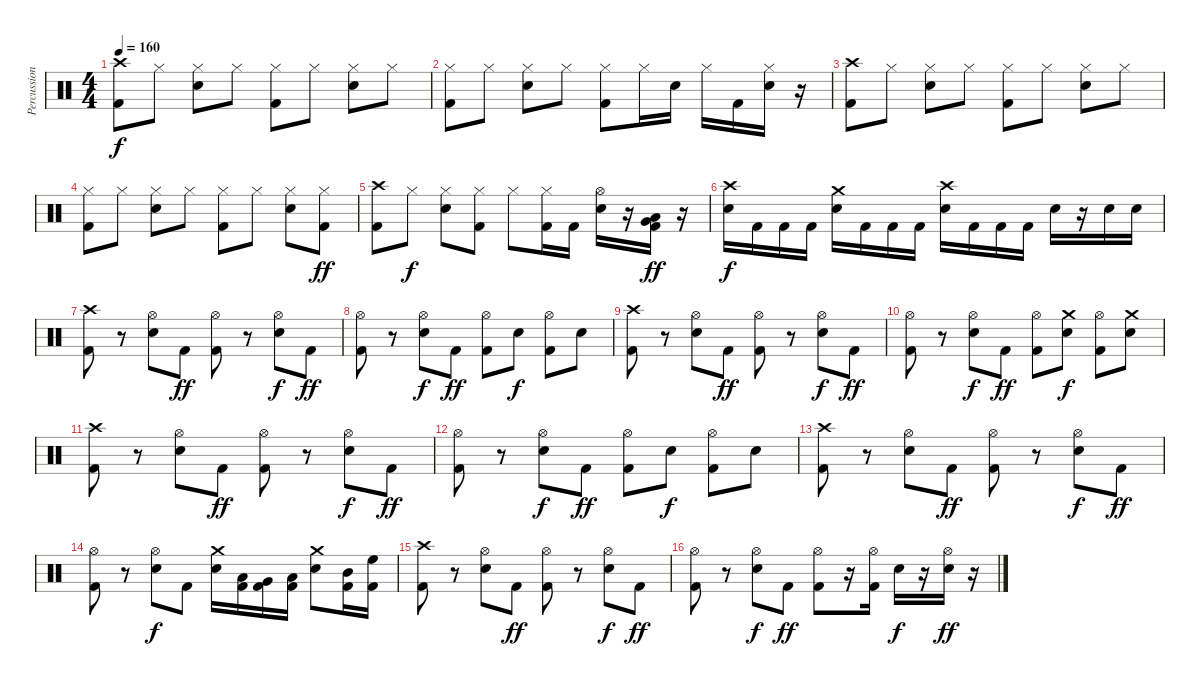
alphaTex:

\track ("Percussion" "Percussion") {instrument percussion}
\staff {score}
\articulation defaults
\ts (4 4)
\tempo 160
\clef neutral
\ks c
("Crash high (hit)" "Kick (hit) 2").8{dy f} "Hi-Hat (closed)".8 ("Hi-Hat (closed)" "Snare (hit) 2").8 "Hi-Hat (closed)".8 ("Hi-Hat (closed)" "Kick (hit) 2").8 "Hi-Hat (closed)".8 ("Hi-Hat (closed)" "Snare (hit) 2").8 "Hi-Hat (closed)".8 |
("Hi-Hat (closed)" "Kick (hit) 2").8 "Hi-Hat (closed)".8 ("Hi-Hat (closed)" "Snare (hit) 2").8 "Hi-Hat (closed)".8 ("Hi-Hat (closed)" "Kick (hit) 2").8 "Hi-Hat (closed)".16 "Snare (hit) 2".16 "Hi-Hat (closed)".16 "Kick (hit) 2".16 ("Hi-Hat (closed)" "Snare (hit) 2").16 r.16 |
("Crash high (hit)" "Kick (hit) 2").8 "Hi-Hat (closed)".8 ("Hi-Hat (closed)" "Snare (hit) 2").8 "Hi-Hat (closed)".8 ("Hi-Hat (closed)" "Kick (hit) 2").8 "Hi-Hat (closed)".8 ("Hi-Hat (closed)" "Snare (hit) 2").8 "Hi-Hat (closed)".8 |
("Hi-Hat (closed)" "Kick (hit) 2").8 "Hi-Hat (closed)".8 ("Hi-Hat (closed)" "Snare (hit) 2").8 "Hi-Hat (closed)".8 ("Hi-Hat (closed)" "Kick (hit) 2").8 "Hi-Hat (closed)".8 ("Hi-Hat (closed)" "Snare (hit) 2").8 ("Hi-Hat (closed)" "Kick (hit) 2").8{dy ff} |
("Crash high (hit)" "Kick (hit) 2").8 "Hi-Hat (closed)".8{dy f} ("Hi-Hat (closed)" "Snare (hit) 2").8 ("Hi-Hat (closed)" "Kick (hit) 2").8 "Hi-Hat (closed)".8 ("Hi-Hat (closed)" "Kick (hit) 2").16 "Kick (hit) 2".16 ("Hi-Hat (open)" "Snare (hit) 2").16 r.16 ("Very Low Tom (hit)" "Low Floor Tom (hit)" "Kick (hit) 2").16{dy ff} r.16 |
("Crash high (hit)" "Snare (hit) 2").16{dy f} "Kick (hit) 2".16 "Kick (hit) 2".16 "Kick (hit) 2".16 ("Crash medium (hit)" "Snare (hit) 2").16 "Kick (hit) 2".16 "Kick (hit) 2".16 "Kick (hit) 2".16 ("Crash high (hit)" "Snare (hit) 2").16 "Kick (hit) 2".16 "Kick (hit) 2".16 "Kick (hit) 2".16 "Snare (hit) 2".16 r.16 "Snare (hit) 2".16 "Snare (hit) 2".16 |
("Crash high (hit)" "Kick (hit) 2").8 r.8 ("Hi-Hat (open)" "Snare (hit) 2").8 "Kick (hit) 2".8{dy ff} ("Hi-Hat (open)" "Kick (hit) 2").8 r.8 ("Hi-Hat (open)" "Snare (hit) 2").8{dy f} "Kick (hit) 2".8{dy ff} |
("Hi-Hat (open)" "Kick (hit) 2").8 r.8 ("Hi-Hat (open)" "Snare (hit) 2").8{dy f} "Kick (hit) 2".8{dy ff} ("Hi-Hat (open)" "Kick (hit) 2").8 "Snare (hit) 2".8{dy f} ("Hi-Hat (open)" "Kick (hit) 2").8 "Snare (hit) 2".8 |
("Crash high (hit)" "Kick (hit) 2").8 r.8 ("Hi-Hat (open)" "Snare (hit) 2").8 "Kick (hit) 2".8{dy ff} ("Hi-Hat (open)" "Kick (hit) 2").8 r.8 ("Hi-Hat (open)" "Snare (hit) 2").8{dy f} "Kick (hit) 2".8{dy ff} |
("Hi-Hat (open)" "Kick (hit) 2").8 r.8 ("Hi-Hat (open)" "Snare (hit) 2").8{dy f} "Kick (hit) 2".8{dy ff} ("Hi-Hat (open)" "Kick (hit) 2").8 ("Crash medium (hit)" "Snare (hit) 2").8{dy f} ("Hi-Hat (open)" "Kick (hit) 2").8 ("Crash medium (hit)" "Snare (hit) 2").8 |
("Crash high (hit)" "Kick (hit) 2").8 r.8 ("Hi-Hat (open)" "Snare (hit) 2").8 "Kick (hit) 2".8{dy ff} ("Hi-Hat (open)" "Kick (hit) 2").8 r.8 ("Hi-Hat (open)" "Snare (hit) 2").8{dy f} "Kick (hit) 2".8{dy ff} |
("Hi-Hat (open)" "Kick (hit) 2").8 r.8 ("Hi-Hat (open)" "Snare (hit) 2").8{dy f} "Kick (hit) 2".8{dy ff} ("Hi-Hat (open)" "Kick (hit) 2").8 "Snare (hit) 2".8{dy f} ("Hi-Hat (open)" "Kick (hit) 2").8 "Snare (hit) 2".8 |
("Crash high (hit)" "Kick (hit) 2").8 r.8 ("Hi-Hat (open)" "Snare (hit) 2").8 "Kick (hit) 2".8{dy ff} ("Hi-Hat (open)" "Kick (hit) 2").8 r.8 ("Hi-Hat (open)" "Snare (hit) 2").8{dy f} "Kick (hit) 2".8{dy ff} |
("Hi-Hat (open)" "Kick (hit) 2").8 r.8 ("Hi-Hat (open)" "Snare (hit) 2").8{dy f} "Kick (hit) 2".8 ("Crash medium (hit)" "Snare (hit) 2").16 ("Low Floor Tom (hit)" "Kick (hit) 2").16 ("Very Low Tom (hit)" "Kick (hit) 2").16 ("Low Tom (hit)" "Kick (hit) 2").16 ("Crash medium (hit)" "Snare (hit) 2").8 ("Mid Tom (hit)" "Kick (hit) 2").16 ("High Floor Tom (hit)" "Kick (hit) 2").16 |
("Crash high (hit)" "Kick (hit) 2").8 r.8 ("Hi-Hat (open)" "Snare (hit) 2").8 "Kick (hit) 2".8{dy ff} ("Hi-Hat (open)" "Kick (hit) 2").8 r.8 ("Hi-Hat (open)" "Snare (hit) 2").8{dy f} "Kick (hit) 2".8{dy ff} |
("Hi-Hat (open)" "Kick (hit) 2").8 r.8 ("Hi-Hat (open)" "Snare (hit) 2").8{dy f} "Kick (hit) 2".8{dy ff} ("Hi-Hat (open)" "Kick (hit) 2").8 r.16 ("Hi-Hat (open)" "Kick (hit) 2").16 "Snare (hit) 2".16{dy f} r.16 ("Hi-Hat (open)" "Snare (hit) 2").16{dy ff} r.16
